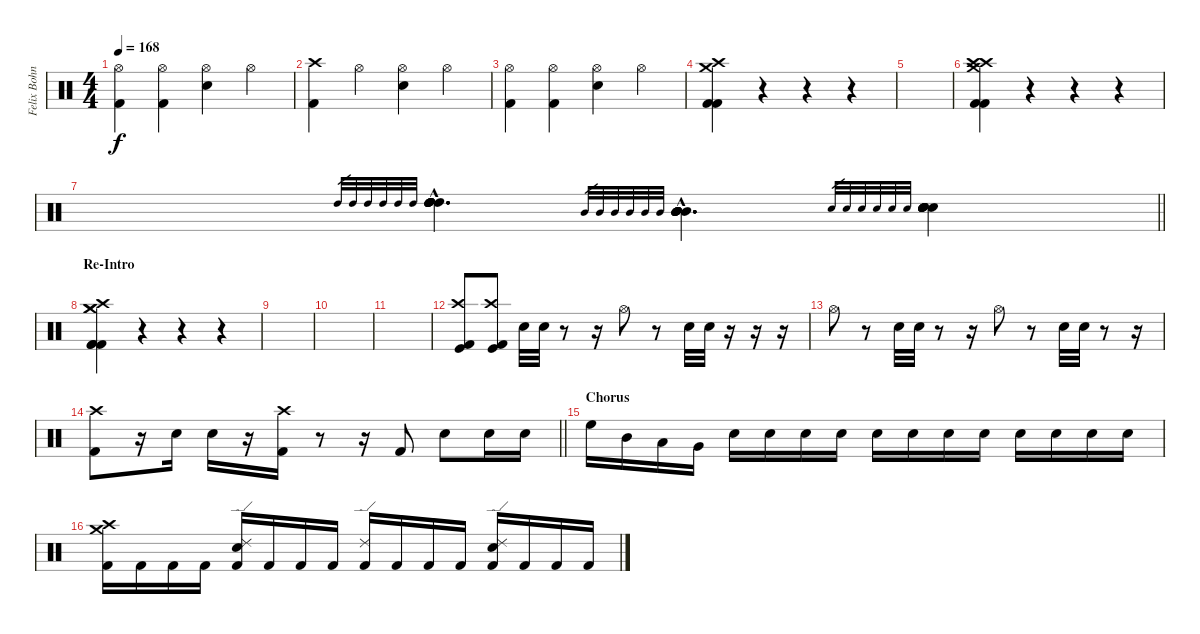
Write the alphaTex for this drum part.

\track ("Felix Bohnke" "Felix Bohn") {instrument percussion}
\staff {score}
\articulation defaults
\ts (4 4)
\tempo 168
\clef neutral
\ks c
("Hi-Hat (open)" "Kick (hit) 2").4{dy f} ("Hi-Hat (open)" "Kick (hit) 2").4 ("Hi-Hat (open)" "Snare (hit) 2").4 "Hi-Hat (open)".4 |
("Crash high (hit)" "Kick (hit) 2").4 "Hi-Hat (open)".4 ("Hi-Hat (open)" "Snare (hit) 2").4 "Hi-Hat (open)".4 |
("Hi-Hat (open)" "Kick (hit) 2").4 ("Hi-Hat (open)" "Kick (hit) 2").4 ("Hi-Hat (open)" "Snare (hit) 2").4 "Hi-Hat (open)".4 |
("Crash high (hit)" "Crash medium (hit)" "Kick (hit) 2" "Kick (hit) 2").4 r.4 r.4 r.4 |
|
("Crash high (hit)" "Crash high (hit)" "Crash medium (hit)" "Kick (hit) 2" "Kick (hit) 2").4 r.4 r.4 r.4 |
\barLineRight lightlight "High Tom (hit)".32{gr} "High Tom (hit)".32{gr} "High Tom (hit)".32{gr} "High Tom (hit)".32{gr} "High Tom (hit)".32{gr} "High Tom (hit)".32{gr}
("High Tom (hit)"{hac} "High Tom (hit)"{hac} "High Tom (hit)"{hac} "High Tom (hit)"{hac} "High Tom (hit)"{hac} "High Tom (hit)"{hac}).4{d} "Mid Tom (hit)".32{gr} "Mid Tom (hit)".32{gr} "Mid Tom (hit)".32{gr} "Mid Tom (hit)".32{gr} "Mid Tom (hit)".32{gr} "Mid Tom (hit)".32{gr} ("Mid Tom (hit)"{hac} "Mid Tom (hit)"{hac} "Mid Tom (hit)"{hac} "Mid Tom (hit)"{hac} "Mid Tom (hit)"{hac} "Mid Tom (hit)"{hac}).4{d} "Electric Snare (hit)".32{gr} "Electric Snare (hit)".32{gr} "Electric Snare (hit)".32{gr} "Electric Snare (hit)".32{gr} "Electric Snare (hit)".32{gr} "Electric Snare (hit)".32{gr} ("Electric Snare (hit)" "Electric Snare (hit)" "Electric Snare (hit)" "Electric Snare (hit)" "Electric Snare (hit)" "Electric Snare (hit)").4 |
\section ("" "Re-Intro")
("Crash high (hit)" "Crash medium (hit)" "Crash medium (hit)" "Kick (hit) 2" "Kick (hit) 2" "Kick (hit) 2").4 r.4 r.4 r.4 |
|
|
|
("Crash high (hit)" "Kick (hit)" "Kick (hit) 2").8 ("Crash high (hit)" "Kick (hit)" "Kick (hit) 2").8 "Electric Snare (hit)".32 "Electric Snare (hit)".32 r.8 r.16 "Hi-Hat (open)".8 r.8 "Electric Snare (hit)".32 "Electric Snare (hit)".32 r.16 r.16 r.16 |
"Hi-Hat (open)".8 r.8 "Electric Snare (hit)".32 "Electric Snare (hit)".32 r.8 r.16 "Hi-Hat (open)".8 r.8 "Electric Snare (hit)".32 "Electric Snare (hit)".32 r.8 r.16 |
\barLineRight lightlight
("Crash high (hit)" "Kick (hit) 2").8 r.16 "Electric Snare (hit)".16 "Electric Snare (hit)".16 r.16 ("Crash high (hit)" "Kick (hit) 2").16 r.8 r.16 "Kick (hit) 2".8 "Electric Snare (hit)".8 "Electric Snare (hit)".16 "Electric Snare (hit)".16 |
\section ("" "Chorus")
"High Floor Tom (hit)".16 "Mid Tom (hit)".16 "Low Tom (hit)".16 "Very Low Tom (hit)".16 "Electric Snare (hit)".16 "Electric Snare (hit)".16 "Electric Snare (hit)".16 "Electric Snare (hit)".16 "Electric Snare (hit)".16{volume 5} "Electric Snare (hit)".16{volume 6} "Electric Snare (hit)".16{volume 7} "Electric Snare (hit)".16{volume 8} "Electric Snare (hit)".16{volume 9} "Electric Snare (hit)".16{volume 11} "Electric Snare (hit)".16{volume 13} "Electric Snare (hit)".16{volume 16} |
("Crash high (hit)" "Crash medium (hit)" "Kick (hit) 2").16 "Kick (hit) 2".16 "Kick (hit) 2".16 "Kick (hit) 2".16 ("Ride (edge) 2" "Snare (hit) 2" "Kick (hit) 2").16 "Kick (hit) 2".16 "Kick (hit) 2".16 "Kick (hit) 2".16 ("Ride (edge) 2" "Kick (hit) 2").16 "Kick (hit) 2".16 "Kick (hit) 2".16 "Kick (hit) 2".16 ("Ride (edge) 2" "Snare (hit) 2" "Kick (hit) 2").16 "Kick (hit) 2".16 "Kick (hit) 2".16 "Kick (hit) 2".16
